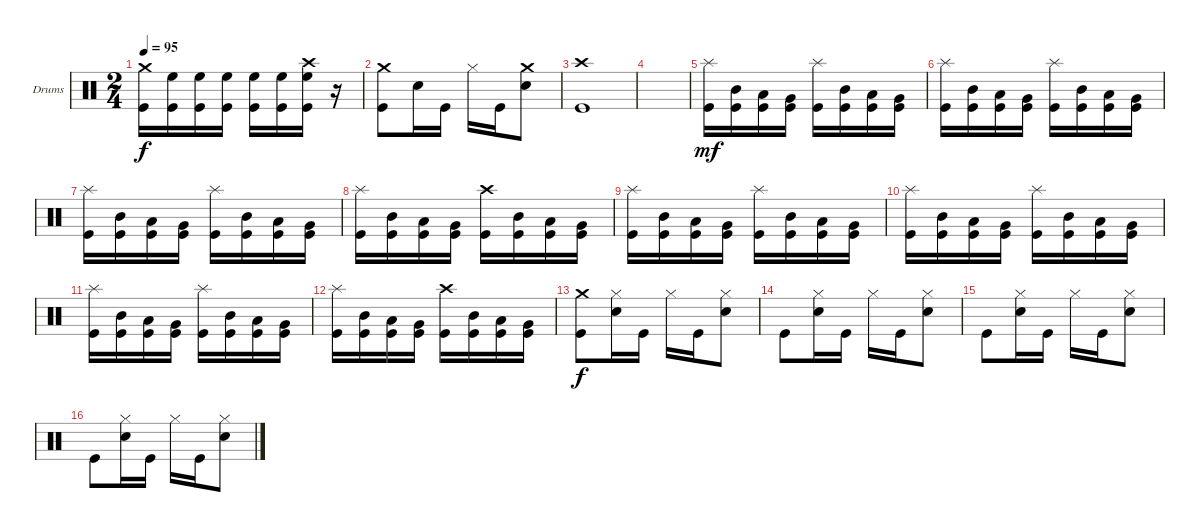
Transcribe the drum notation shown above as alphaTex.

\bracketExtendMode groupsimilarinstruments
\firstSystemTrackNameOrientation horizontal
\otherSystemsTrackNameOrientation horizontal
\track ("Drumkit" "Drums") {instrument percussion}
\staff {score}
\articulation defaults
\ts (2 4)
\tempo 95
\clef neutral
\ks c
("Kick (hit)" "Crash medium (hit)").16{dy f} ("High Floor Tom (hit)" "Kick (hit)").16 ("Kick (hit)" "High Floor Tom (hit)").16 ("High Floor Tom (hit)" "Kick (hit)").16 ("Kick (hit)" "High Floor Tom (hit)").16 ("Kick (hit)" "High Floor Tom (hit)").16 ("Kick (hit)" "High Floor Tom (hit)" "Crash high (hit)").16 r.16 |
("Kick (hit)" "Crash medium (hit)").8 "Snare (hit) 2".16 "Kick (hit)".16 "Hi-Hat (closed)".16 "Kick (hit)".16 ("Snare (hit) 2" "Crash medium (hit)").8 |
("Kick (hit)" "Crash high (hit)").1 |
|
("Kick (hit)" "Splash (hit)").16{dy mf} ("Kick (hit)" "Mid Tom (hit)").16 ("Kick (hit)" "Low Tom (hit)").16 ("Kick (hit)" "Very Low Tom (hit)").16 ("Kick (hit)" "Splash (hit)").16 ("Kick (hit)" "Mid Tom (hit)").16 ("Kick (hit)" "Low Tom (hit)").16 ("Kick (hit)" "Very Low Tom (hit)").16 |
("Kick (hit)" "Splash (hit)").16 ("Kick (hit)" "Mid Tom (hit)").16 ("Kick (hit)" "Low Tom (hit)").16 ("Kick (hit)" "Very Low Tom (hit)").16 ("Kick (hit)" "Splash (hit)").16 ("Kick (hit)" "Mid Tom (hit)").16 ("Kick (hit)" "Low Tom (hit)").16 ("Kick (hit)" "Very Low Tom (hit)").16 |
("Kick (hit)" "Splash (hit)").16 ("Kick (hit)" "Mid Tom (hit)").16 ("Kick (hit)" "Low Tom (hit)").16 ("Kick (hit)" "Very Low Tom (hit)").16 ("Kick (hit)" "Splash (hit)").16 ("Kick (hit)" "Mid Tom (hit)").16 ("Kick (hit)" "Low Tom (hit)").16 ("Kick (hit)" "Very Low Tom (hit)").16 |
("Kick (hit)" "Splash (hit)").16 ("Kick (hit)" "Mid Tom (hit)").16 ("Kick (hit)" "Low Tom (hit)").16 ("Kick (hit)" "Very Low Tom (hit)").16 ("Kick (hit)" "Crash high (hit)").16 ("Kick (hit)" "Mid Tom (hit)").16 ("Kick (hit)" "Low Tom (hit)").16 ("Kick (hit)" "Very Low Tom (hit)").16 |
("Kick (hit)" "Splash (hit)").16 ("Kick (hit)" "Mid Tom (hit)").16 ("Kick (hit)" "Low Tom (hit)").16 ("Kick (hit)" "Very Low Tom (hit)").16 ("Kick (hit)" "Splash (hit)").16 ("Kick (hit)" "Mid Tom (hit)").16 ("Kick (hit)" "Low Tom (hit)").16 ("Kick (hit)" "Very Low Tom (hit)").16 |
("Kick (hit)" "Splash (hit)").16 ("Kick (hit)" "Mid Tom (hit)").16 ("Kick (hit)" "Low Tom (hit)").16 ("Kick (hit)" "Very Low Tom (hit)").16 ("Kick (hit)" "Splash (hit)").16 ("Kick (hit)" "Mid Tom (hit)").16 ("Kick (hit)" "Low Tom (hit)").16 ("Kick (hit)" "Very Low Tom (hit)").16 |
("Kick (hit)" "Splash (hit)").16 ("Kick (hit)" "Mid Tom (hit)").16 ("Kick (hit)" "Low Tom (hit)").16 ("Kick (hit)" "Very Low Tom (hit)").16 ("Kick (hit)" "Splash (hit)").16 ("Kick (hit)" "Mid Tom (hit)").16 ("Kick (hit)" "Low Tom (hit)").16 ("Kick (hit)" "Very Low Tom (hit)").16 |
("Kick (hit)" "Splash (hit)").16 ("Kick (hit)" "Mid Tom (hit)").16 ("Kick (hit)" "Low Tom (hit)").16 ("Kick (hit)" "Very Low Tom (hit)").16 ("Kick (hit)" "Crash high (hit)").16 ("Kick (hit)" "Mid Tom (hit)").16 ("Kick (hit)" "Low Tom (hit)").16 ("Kick (hit)" "Very Low Tom (hit)").16 |
("Kick (hit)" "Crash medium (hit)").8{dy f} ("Hi-Hat (closed)" "Snare (hit) 2").16 "Kick (hit)".16 "Hi-Hat (closed)".16 "Kick (hit)".16 ("Hi-Hat (closed)" "Snare (hit) 2").8 |
"Kick (hit)".8 ("Hi-Hat (closed)" "Snare (hit) 2").16 "Kick (hit)".16 "Hi-Hat (closed)".16 "Kick (hit)".16 ("Hi-Hat (closed)" "Snare (hit) 2").8 |
"Kick (hit)".8 ("Hi-Hat (closed)" "Snare (hit) 2").16 "Kick (hit)".16 "Hi-Hat (closed)".16 "Kick (hit)".16 ("Hi-Hat (closed)" "Snare (hit) 2").8 |
"Kick (hit)".8 ("Hi-Hat (closed)" "Snare (hit) 2").16 "Kick (hit)".16 "Hi-Hat (closed)".16 "Kick (hit)".16 ("Hi-Hat (closed)" "Snare (hit) 2").8
